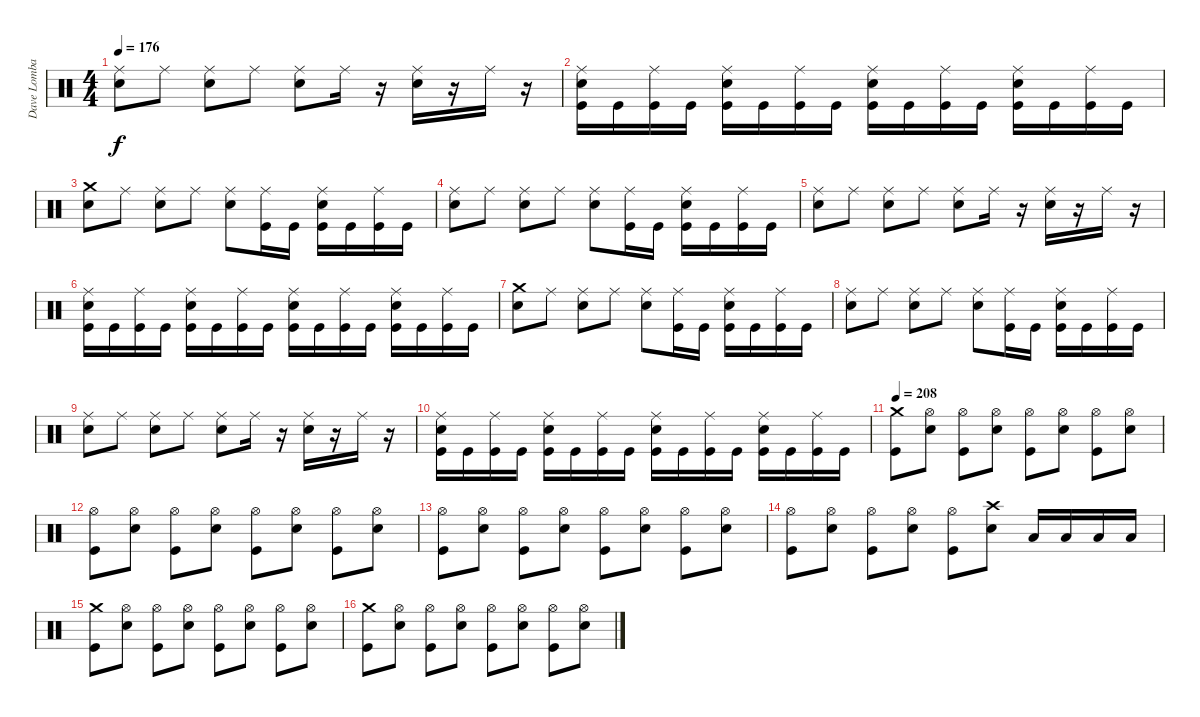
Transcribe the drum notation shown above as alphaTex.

\track ("Dave Lombardo (Drum)" "Dave Lomba") {instrument percussion}
\staff {score}
\articulation defaults
\ts (4 4)
\tempo 176
\clef neutral
\ks c
("Snare (hit) 2" "Ride (middle)").8{dy f} "Ride (middle)".8 ("Snare (hit) 2" "Ride (middle)").8 "Ride (middle)".8 ("Snare (hit) 2" "Ride (middle)").8 "Ride (middle)".16 r.16 ("Snare (hit) 2" "Ride (middle)").16 r.16 "Ride (middle)".16 r.16 |
("Kick (hit)" "Snare (hit) 2" "Ride (middle)").16 "Kick (hit)".16 ("Kick (hit)" "Ride (middle)").16 "Kick (hit)".16 ("Kick (hit)" "Snare (hit) 2" "Ride (middle)").16 "Kick (hit)".16 ("Kick (hit)" "Ride (middle)").16 "Kick (hit)".16 ("Kick (hit)" "Snare (hit) 2" "Ride (middle)").16 "Kick (hit)".16 ("Kick (hit)" "Ride (middle)").16 "Kick (hit)".16 ("Kick (hit)" "Snare (hit) 2" "Ride (middle)").16 "Kick (hit)".16 ("Kick (hit)" "Ride (middle)").16 "Kick (hit)".16 |
("Snare (hit) 2" "Crash medium (hit)").8 "Ride (middle)".8 ("Snare (hit) 2" "Ride (middle)").8 "Ride (middle)".8 ("Snare (hit) 2" "Ride (middle)").8 ("Kick (hit)" "Ride (middle)").16 "Kick (hit)".16 ("Kick (hit)" "Snare (hit) 2" "Ride (middle)").16 "Kick (hit)".16 ("Kick (hit)" "Ride (middle)").16 "Kick (hit)".16 |
("Snare (hit) 2" "Ride (middle)").8 "Ride (middle)".8 ("Snare (hit) 2" "Ride (middle)").8 "Ride (middle)".8 ("Snare (hit) 2" "Ride (middle)").8 ("Kick (hit)" "Ride (middle)").16 "Kick (hit)".16 ("Kick (hit)" "Snare (hit) 2" "Ride (middle)").16 "Kick (hit)".16 ("Kick (hit)" "Ride (middle)").16 "Kick (hit)".16 |
("Snare (hit) 2" "Ride (middle)").8 "Ride (middle)".8 ("Snare (hit) 2" "Ride (middle)").8 "Ride (middle)".8 ("Snare (hit) 2" "Ride (middle)").8 "Ride (middle)".16 r.16 ("Snare (hit) 2" "Ride (middle)").16 r.16 "Ride (middle)".16 r.16 |
("Kick (hit)" "Snare (hit) 2" "Ride (middle)").16 "Kick (hit)".16 ("Kick (hit)" "Ride (middle)").16 "Kick (hit)".16 ("Kick (hit)" "Snare (hit) 2" "Ride (middle)").16 "Kick (hit)".16 ("Kick (hit)" "Ride (middle)").16 "Kick (hit)".16 ("Kick (hit)" "Snare (hit) 2" "Ride (middle)").16 "Kick (hit)".16 ("Kick (hit)" "Ride (middle)").16 "Kick (hit)".16 ("Kick (hit)" "Snare (hit) 2" "Ride (middle)").16 "Kick (hit)".16 ("Kick (hit)" "Ride (middle)").16 "Kick (hit)".16 |
("Snare (hit) 2" "Crash medium (hit)").8 "Ride (middle)".8 ("Snare (hit) 2" "Ride (middle)").8 "Ride (middle)".8 ("Snare (hit) 2" "Ride (middle)").8 ("Kick (hit)" "Ride (middle)").16 "Kick (hit)".16 ("Kick (hit)" "Snare (hit) 2" "Ride (middle)").16 "Kick (hit)".16 ("Kick (hit)" "Ride (middle)").16 "Kick (hit)".16 |
("Snare (hit) 2" "Ride (middle)").8 "Ride (middle)".8 ("Snare (hit) 2" "Ride (middle)").8 "Ride (middle)".8 ("Snare (hit) 2" "Ride (middle)").8 ("Kick (hit)" "Ride (middle)").16 "Kick (hit)".16 ("Kick (hit)" "Snare (hit) 2" "Ride (middle)").16 "Kick (hit)".16 ("Kick (hit)" "Ride (middle)").16 "Kick (hit)".16 |
("Snare (hit) 2" "Ride (middle)").8 "Ride (middle)".8 ("Snare (hit) 2" "Ride (middle)").8 "Ride (middle)".8 ("Snare (hit) 2" "Ride (middle)").8 "Ride (middle)".16 r.16 ("Snare (hit) 2" "Ride (middle)").16 r.16 "Ride (middle)".16 r.16 |
("Kick (hit)" "Snare (hit) 2" "Ride (middle)").16 "Kick (hit)".16 ("Kick (hit)" "Ride (middle)").16 "Kick (hit)".16 ("Kick (hit)" "Snare (hit) 2" "Ride (middle)").16 "Kick (hit)".16 ("Kick (hit)" "Ride (middle)").16 "Kick (hit)".16 ("Kick (hit)" "Snare (hit) 2" "Ride (middle)").16 "Kick (hit)".16 ("Kick (hit)" "Ride (middle)").16 "Kick (hit)".16 ("Kick (hit)" "Snare (hit) 2" "Ride (middle)").16 "Kick (hit)".16 ("Kick (hit)" "Ride (middle)").16 "Kick (hit)".16 |
\tempo 208
("Crash medium (hit)" "Kick (hit)").8 ("Snare (hit) 2" "Hi-Hat (open)").8 ("Kick (hit)" "Hi-Hat (open)").8 ("Snare (hit) 2" "Hi-Hat (open)").8 ("Kick (hit)" "Hi-Hat (open)").8 ("Snare (hit) 2" "Hi-Hat (open)").8 ("Kick (hit)" "Hi-Hat (open)").8 ("Snare (hit) 2" "Hi-Hat (open)").8 |
("Hi-Hat (open)" "Kick (hit)").8 ("Snare (hit) 2" "Hi-Hat (open)").8 ("Kick (hit)" "Hi-Hat (open)").8 ("Snare (hit) 2" "Hi-Hat (open)").8 ("Kick (hit)" "Hi-Hat (open)").8 ("Snare (hit) 2" "Hi-Hat (open)").8 ("Kick (hit)" "Hi-Hat (open)").8 ("Snare (hit) 2" "Hi-Hat (open)").8 |
("Hi-Hat (open)" "Kick (hit)").8 ("Snare (hit) 2" "Hi-Hat (open)").8 ("Kick (hit)" "Hi-Hat (open)").8 ("Snare (hit) 2" "Hi-Hat (open)").8 ("Kick (hit)" "Hi-Hat (open)").8 ("Snare (hit) 2" "Hi-Hat (open)").8 ("Kick (hit)" "Hi-Hat (open)").8 ("Snare (hit) 2" "Hi-Hat (open)").8 |
("Hi-Hat (open)" "Kick (hit)").8 ("Snare (hit) 2" "Hi-Hat (open)").8 ("Kick (hit)" "Hi-Hat (open)").8 ("Snare (hit) 2" "Hi-Hat (open)").8 ("Kick (hit)" "Hi-Hat (open)").8 ("Snare (hit) 2" "Crash high (hit)").8 "Low Tom (hit)".16 "Low Tom (hit)".16 "Low Tom (hit)".16 "Low Tom (hit)".16 |
("Crash medium (hit)" "Kick (hit)").8 ("Snare (hit) 2" "Hi-Hat (open)").8 ("Kick (hit)" "Hi-Hat (open)").8 ("Snare (hit) 2" "Hi-Hat (open)").8 ("Kick (hit)" "Hi-Hat (open)").8 ("Snare (hit) 2" "Hi-Hat (open)").8 ("Kick (hit)" "Hi-Hat (open)").8 ("Snare (hit) 2" "Hi-Hat (open)").8 |
("Crash medium (hit)" "Kick (hit)").8 ("Snare (hit) 2" "Hi-Hat (open)").8 ("Kick (hit)" "Hi-Hat (open)").8 ("Snare (hit) 2" "Hi-Hat (open)").8 ("Kick (hit)" "Hi-Hat (open)").8 ("Snare (hit) 2" "Hi-Hat (open)").8 ("Kick (hit)" "Hi-Hat (open)").8 ("Snare (hit) 2" "Hi-Hat (open)").8
